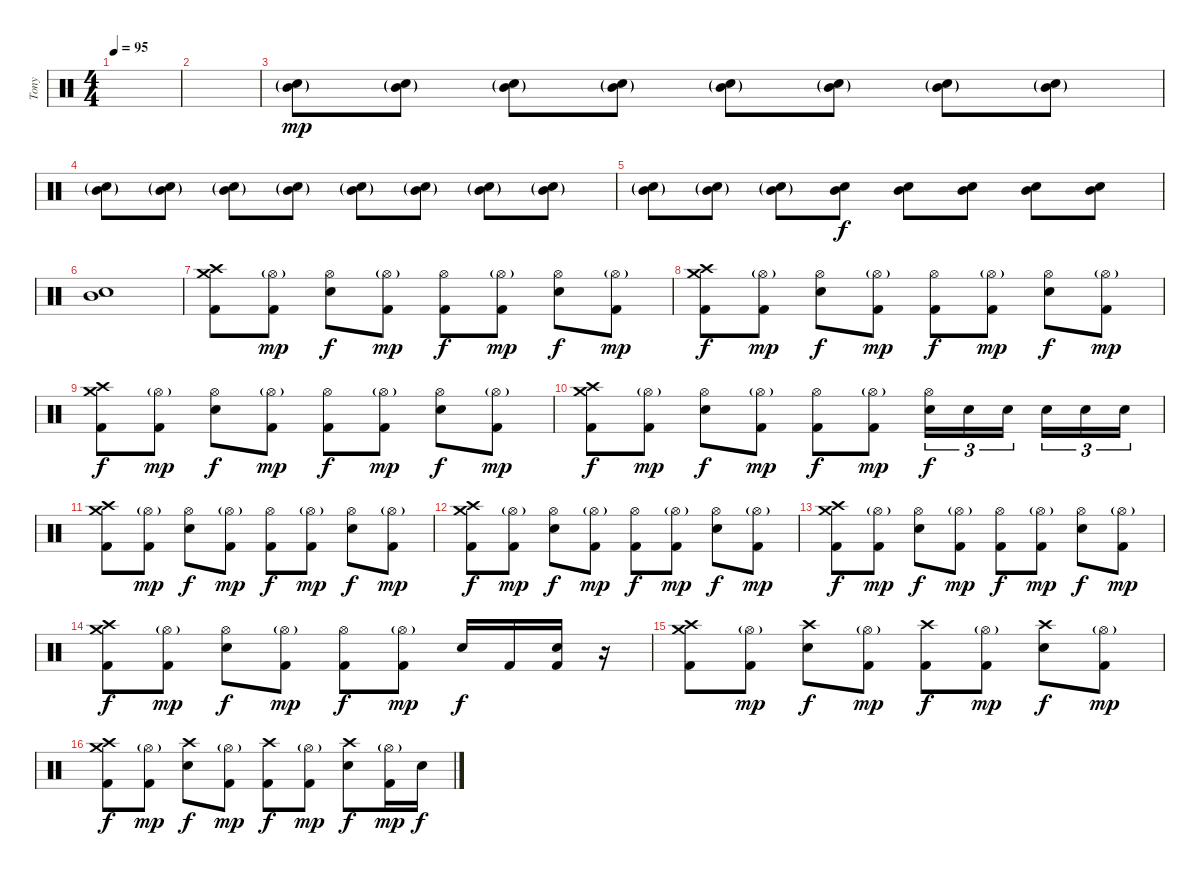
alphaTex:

\track ("Tony" "Tony") {instrument percussion}
\staff {score}
\articulation defaults
\ts (4 4)
\tempo 95
\clef neutral
\ks c
|
|
("Electric Snare (hit)"{g} "Mid Tom (hit)"{g}).8{dy mp} ("Electric Snare (hit)"{g} "Mid Tom (hit)"{g}).8 ("Electric Snare (hit)"{g} "Mid Tom (hit)"{g}).8 ("Electric Snare (hit)"{g} "Mid Tom (hit)"{g}).8 ("Electric Snare (hit)"{g} "Mid Tom (hit)"{g}).8 ("Electric Snare (hit)"{g} "Mid Tom (hit)"{g}).8 ("Electric Snare (hit)"{g} "Mid Tom (hit)"{g}).8 ("Electric Snare (hit)"{g} "Mid Tom (hit)"{g}).8 |
("Electric Snare (hit)"{g} "Mid Tom (hit)"{g}).8 ("Electric Snare (hit)"{g} "Mid Tom (hit)"{g}).8 ("Electric Snare (hit)"{g} "Mid Tom (hit)"{g}).8 ("Electric Snare (hit)"{g} "Mid Tom (hit)"{g}).8 ("Electric Snare (hit)"{g} "Mid Tom (hit)"{g}).8 ("Electric Snare (hit)"{g} "Mid Tom (hit)"{g}).8 ("Electric Snare (hit)"{g} "Mid Tom (hit)"{g}).8 ("Electric Snare (hit)"{g} "Mid Tom (hit)"{g}).8 |
("Electric Snare (hit)"{g} "Mid Tom (hit)"{g}).8 ("Electric Snare (hit)"{g} "Mid Tom (hit)"{g}).8 ("Electric Snare (hit)"{g} "Mid Tom (hit)"{g}).8 ("Electric Snare (hit)" "Mid Tom (hit)").8{dy f} ("Electric Snare (hit)" "Mid Tom (hit)").8 ("Electric Snare (hit)" "Mid Tom (hit)").8 ("Electric Snare (hit)" "Mid Tom (hit)").8 ("Electric Snare (hit)" "Mid Tom (hit)").8 |
("Electric Snare (hit)" "Mid Tom (hit)").1 |
("Crash high (hit)" "Crash medium (hit)" "Kick (hit) 2").8 ("Hi-Hat (open)"{g} "Kick (hit) 2").8{dy mp} ("Hi-Hat (open)" "Electric Snare (hit)").8{dy f} ("Hi-Hat (open)"{g} "Kick (hit) 2").8{dy mp} ("Hi-Hat (open)" "Kick (hit) 2").8{dy f} ("Hi-Hat (open)"{g} "Kick (hit) 2").8{dy mp} ("Hi-Hat (open)" "Electric Snare (hit)").8{dy f} ("Hi-Hat (open)"{g} "Kick (hit) 2").8{dy mp} |
("Crash high (hit)" "Crash medium (hit)" "Kick (hit) 2").8{dy f} ("Hi-Hat (open)"{g} "Kick (hit) 2").8{dy mp} ("Hi-Hat (open)" "Electric Snare (hit)").8{dy f} ("Hi-Hat (open)"{g} "Kick (hit) 2").8{dy mp} ("Hi-Hat (open)" "Kick (hit) 2").8{dy f} ("Hi-Hat (open)"{g} "Kick (hit) 2").8{dy mp} ("Hi-Hat (open)" "Electric Snare (hit)").8{dy f} ("Hi-Hat (open)"{g} "Kick (hit) 2").8{dy mp} |
("Crash high (hit)" "Crash medium (hit)" "Kick (hit) 2").8{dy f} ("Hi-Hat (open)"{g} "Kick (hit) 2").8{dy mp} ("Hi-Hat (open)" "Electric Snare (hit)").8{dy f} ("Hi-Hat (open)"{g} "Kick (hit) 2").8{dy mp} ("Hi-Hat (open)" "Kick (hit) 2").8{dy f} ("Hi-Hat (open)"{g} "Kick (hit) 2").8{dy mp} ("Hi-Hat (open)" "Electric Snare (hit)").8{dy f} ("Hi-Hat (open)"{g} "Kick (hit) 2").8{dy mp} |
("Crash high (hit)" "Crash medium (hit)" "Kick (hit) 2").8{dy f} ("Hi-Hat (open)"{g} "Kick (hit) 2").8{dy mp} ("Hi-Hat (open)" "Electric Snare (hit)").8{dy f} ("Hi-Hat (open)"{g} "Kick (hit) 2").8{dy mp} ("Hi-Hat (open)" "Kick (hit) 2").8{dy f} ("Hi-Hat (open)"{g} "Kick (hit) 2").8{dy mp} ("Hi-Hat (open)" "Electric Snare (hit)").16{tu (3 2) dy f} "Electric Snare (hit)".16{tu (3 2)} "Electric Snare (hit)".16{tu (3 2) beam splitsecondary} "Electric Snare (hit)".16{tu (3 2)} "Electric Snare (hit)".16{tu (3 2)} "Electric Snare (hit)".16{tu (3 2)} |
("Crash high (hit)" "Crash medium (hit)" "Kick (hit) 2").8 ("Hi-Hat (open)"{g} "Kick (hit) 2").8{dy mp} ("Hi-Hat (open)" "Electric Snare (hit)").8{dy f} ("Hi-Hat (open)"{g} "Kick (hit) 2").8{dy mp} ("Hi-Hat (open)" "Kick (hit) 2").8{dy f} ("Hi-Hat (open)"{g} "Kick (hit) 2").8{dy mp} ("Hi-Hat (open)" "Electric Snare (hit)").8{dy f} ("Hi-Hat (open)"{g} "Kick (hit) 2").8{dy mp} |
("Crash high (hit)" "Crash medium (hit)" "Kick (hit) 2").8{dy f} ("Hi-Hat (open)"{g} "Kick (hit) 2").8{dy mp} ("Hi-Hat (open)" "Electric Snare (hit)").8{dy f} ("Hi-Hat (open)"{g} "Kick (hit) 2").8{dy mp} ("Hi-Hat (open)" "Kick (hit) 2").8{dy f} ("Hi-Hat (open)"{g} "Kick (hit) 2").8{dy mp} ("Hi-Hat (open)" "Electric Snare (hit)").8{dy f} ("Hi-Hat (open)"{g} "Kick (hit) 2").8{dy mp} |
("Crash high (hit)" "Crash medium (hit)" "Kick (hit) 2").8{dy f} ("Hi-Hat (open)"{g} "Kick (hit) 2").8{dy mp} ("Hi-Hat (open)" "Electric Snare (hit)").8{dy f} ("Hi-Hat (open)"{g} "Kick (hit) 2").8{dy mp} ("Hi-Hat (open)" "Kick (hit) 2").8{dy f} ("Hi-Hat (open)"{g} "Kick (hit) 2").8{dy mp} ("Hi-Hat (open)" "Electric Snare (hit)").8{dy f} ("Hi-Hat (open)"{g} "Kick (hit) 2").8{dy mp} |
("Crash high (hit)" "Crash medium (hit)" "Kick (hit) 2").8{dy f} ("Hi-Hat (open)"{g} "Kick (hit) 2").8{dy mp} ("Hi-Hat (open)" "Electric Snare (hit)").8{dy f} ("Hi-Hat (open)"{g} "Kick (hit) 2").8{dy mp} ("Hi-Hat (open)" "Kick (hit) 2").8{dy f} ("Hi-Hat (open)"{g} "Kick (hit) 2").8{dy mp} "Electric Snare (hit)".16{dy f} "Kick (hit) 2".16 ("Electric Snare (hit)" "Kick (hit) 2").16 r.16 |
("Crash high (hit)" "Crash medium (hit)" "Kick (hit) 2").8 ("Hi-Hat (open)"{g} "Kick (hit) 2").8{dy mp} ("Crash high (hit)" "Electric Snare (hit)").8{dy f} ("Hi-Hat (open)"{g} "Kick (hit) 2").8{dy mp} ("Crash high (hit)" "Kick (hit) 2").8{dy f} ("Hi-Hat (open)"{g} "Kick (hit) 2").8{dy mp} ("Crash high (hit)" "Electric Snare (hit)").8{dy f} ("Hi-Hat (open)"{g} "Kick (hit) 2").8{dy mp} |
("Crash high (hit)" "Crash medium (hit)" "Kick (hit) 2").8{dy f} ("Hi-Hat (open)"{g} "Kick (hit) 2").8{dy mp} ("Crash high (hit)" "Electric Snare (hit)").8{dy f} ("Hi-Hat (open)"{g} "Kick (hit) 2").8{dy mp} ("Crash high (hit)" "Kick (hit) 2").8{dy f} ("Hi-Hat (open)"{g} "Kick (hit) 2").8{dy mp} ("Crash high (hit)" "Electric Snare (hit)").8{dy f} ("Hi-Hat (open)"{g} "Kick (hit) 2").16{dy mp} "Electric Snare (hit)".16{dy f}
